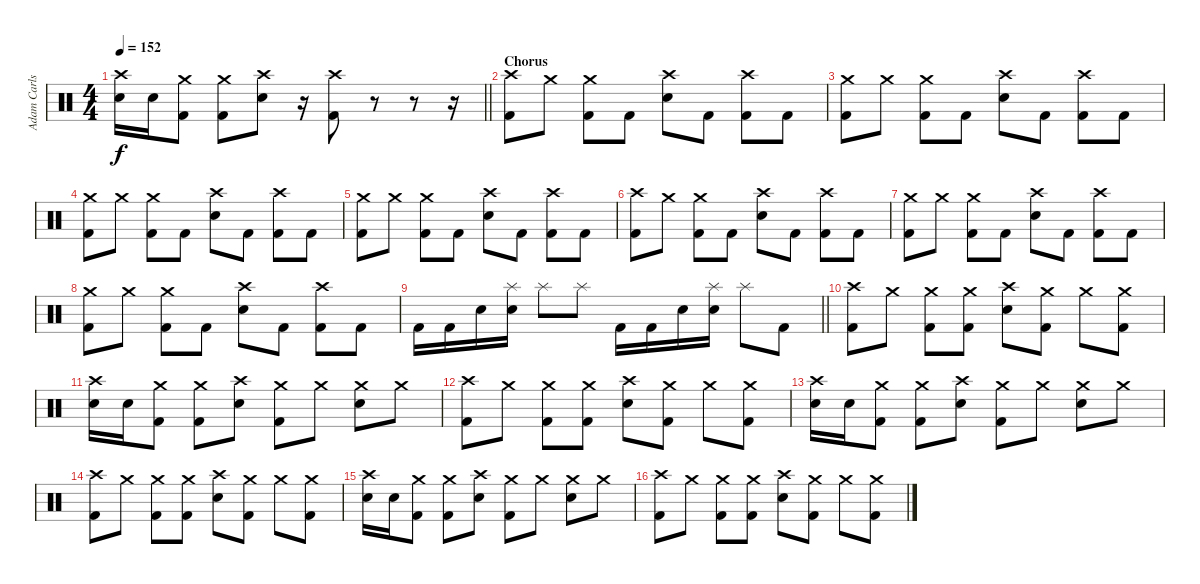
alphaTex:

\track ("Adam Carlson" "Adam Carls") {instrument percussion}
\staff {score}
\articulation defaults
\ts (4 4)
\tempo 152
\clef neutral
\barLineRight lightlight
\ks c
("Crash high (hit)" "Electric Snare (hit)").16{dy f} "Electric Snare (hit)".16 ("Crash medium (hit)" "Kick (hit) 2").8 ("Crash medium (hit)" "Kick (hit) 2").8 ("Electric Snare (hit)" "Crash high (hit)").8 r.16 ("Crash high (hit)" "Kick (hit) 2").8 r.8 r.8 r.16 |
\section ("" "Chorus")
("Crash high (hit)" "Kick (hit) 2").8 "Crash medium (hit)".8 ("Crash medium (hit)" "Kick (hit) 2").8 "Kick (hit) 2".8 ("Electric Snare (hit)" "Crash high (hit)").8 "Kick (hit) 2".8 ("Kick (hit) 2" "Crash high (hit)").8 "Kick (hit) 2".8 |
("Crash medium (hit)" "Kick (hit) 2").8 "Crash medium (hit)".8 ("Crash medium (hit)" "Kick (hit) 2").8 "Kick (hit) 2".8 ("Electric Snare (hit)" "Crash high (hit)").8 "Kick (hit) 2".8 ("Kick (hit) 2" "Crash high (hit)").8 "Kick (hit) 2".8 |
("Crash medium (hit)" "Kick (hit) 2").8 "Crash medium (hit)".8 ("Crash medium (hit)" "Kick (hit) 2").8 "Kick (hit) 2".8 ("Electric Snare (hit)" "Crash high (hit)").8 "Kick (hit) 2".8 ("Kick (hit) 2" "Crash high (hit)").8 "Kick (hit) 2".8 |
("Crash medium (hit)" "Kick (hit) 2").8 "Crash medium (hit)".8 ("Crash medium (hit)" "Kick (hit) 2").8 "Kick (hit) 2".8 ("Electric Snare (hit)" "Crash high (hit)").8 "Kick (hit) 2".8 ("Kick (hit) 2" "Crash high (hit)").8 "Kick (hit) 2".8 |
("Crash high (hit)" "Kick (hit) 2").8 "Crash medium (hit)".8 ("Crash medium (hit)" "Kick (hit) 2").8 "Kick (hit) 2".8 ("Electric Snare (hit)" "Crash high (hit)").8 "Kick (hit) 2".8 ("Kick (hit) 2" "Crash high (hit)").8 "Kick (hit) 2".8 |
("Crash medium (hit)" "Kick (hit) 2").8 "Crash medium (hit)".8 ("Crash medium (hit)" "Kick (hit) 2").8 "Kick (hit) 2".8 ("Electric Snare (hit)" "Crash high (hit)").8 "Kick (hit) 2".8 ("Kick (hit) 2" "Crash high (hit)").8 "Kick (hit) 2".8 |
("Crash medium (hit)" "Kick (hit) 2").8 "Crash medium (hit)".8 ("Crash medium (hit)" "Kick (hit) 2").8 "Kick (hit) 2".8 ("Electric Snare (hit)" "Crash high (hit)").8 "Kick (hit) 2".8 ("Kick (hit) 2" "Crash high (hit)").8 "Kick (hit) 2".8 |
\barLineRight lightlight "Kick (hit) 2".16 "Kick (hit) 2".16 "Electric Snare (hit)".16
("Splash (hit)" "Electric Snare (hit)").16 "Splash (hit)".8 "Splash (hit)".8 "Kick (hit) 2".16 "Kick (hit) 2".16 "Electric Snare (hit)".16 ("Splash (hit)" "Electric Snare (hit)").16 "Splash (hit)".8 "Kick (hit) 2".8 |
("Crash high (hit)" "Kick (hit) 2").8 "Crash medium (hit)".8 ("Crash medium (hit)" "Kick (hit) 2").8 ("Kick (hit) 2" "Crash medium (hit)").8 ("Electric Snare (hit)" "Crash high (hit)").8 ("Crash medium (hit)" "Kick (hit) 2").8 "Crash medium (hit)".8 ("Crash medium (hit)" "Kick (hit) 2").8 |
("Crash high (hit)" "Electric Snare (hit)").16 "Electric Snare (hit)".16 ("Crash medium (hit)" "Kick (hit) 2").8 ("Crash medium (hit)" "Kick (hit) 2").8 ("Electric Snare (hit)" "Crash high (hit)").8 ("Crash medium (hit)" "Kick (hit) 2").8 "Crash medium (hit)".8 ("Crash medium (hit)" "Electric Snare (hit)").8 "Crash medium (hit)".8 |
("Crash high (hit)" "Kick (hit) 2").8 "Crash medium (hit)".8 ("Crash medium (hit)" "Kick (hit) 2").8 ("Kick (hit) 2" "Crash medium (hit)").8 ("Electric Snare (hit)" "Crash high (hit)").8 ("Crash medium (hit)" "Kick (hit) 2").8 "Crash medium (hit)".8 ("Crash medium (hit)" "Kick (hit) 2").8 |
("Crash high (hit)" "Electric Snare (hit)").16 "Electric Snare (hit)".16 ("Crash medium (hit)" "Kick (hit) 2").8 ("Crash medium (hit)" "Kick (hit) 2").8 ("Electric Snare (hit)" "Crash high (hit)").8 ("Crash medium (hit)" "Kick (hit) 2").8 "Crash medium (hit)".8 ("Crash medium (hit)" "Electric Snare (hit)").8 "Crash medium (hit)".8 |
("Crash high (hit)" "Kick (hit) 2").8 "Crash medium (hit)".8 ("Crash medium (hit)" "Kick (hit) 2").8 ("Kick (hit) 2" "Crash medium (hit)").8 ("Electric Snare (hit)" "Crash high (hit)").8 ("Crash medium (hit)" "Kick (hit) 2").8 "Crash medium (hit)".8 ("Crash medium (hit)" "Kick (hit) 2").8 |
("Crash high (hit)" "Electric Snare (hit)").16 "Electric Snare (hit)".16 ("Crash medium (hit)" "Kick (hit) 2").8 ("Crash medium (hit)" "Kick (hit) 2").8 ("Electric Snare (hit)" "Crash high (hit)").8 ("Crash medium (hit)" "Kick (hit) 2").8 "Crash medium (hit)".8 ("Crash medium (hit)" "Electric Snare (hit)").8 "Crash medium (hit)".8 |
("Crash high (hit)" "Kick (hit) 2").8 "Crash medium (hit)".8 ("Crash medium (hit)" "Kick (hit) 2").8 ("Kick (hit) 2" "Crash medium (hit)").8 ("Electric Snare (hit)" "Crash high (hit)").8 ("Crash medium (hit)" "Kick (hit) 2").8 "Crash medium (hit)".8 ("Crash medium (hit)" "Kick (hit) 2").8
